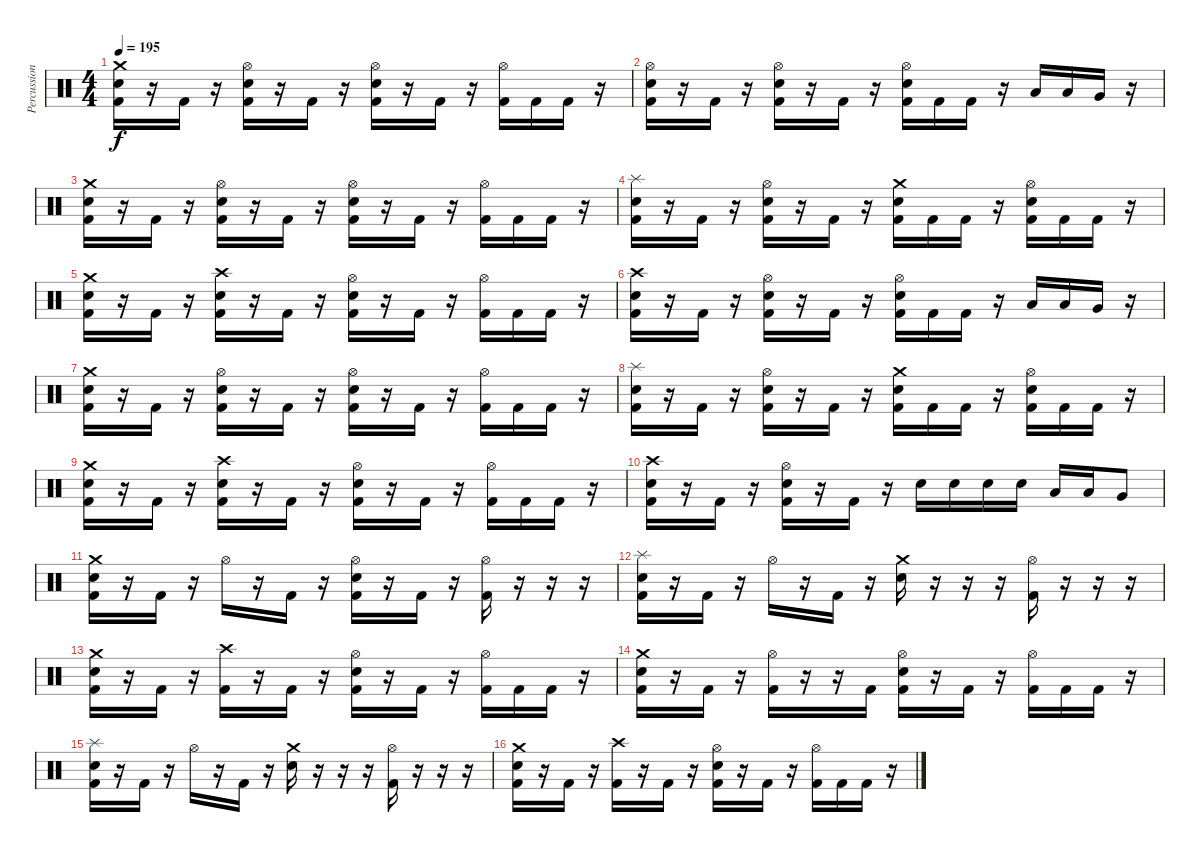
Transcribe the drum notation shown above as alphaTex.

\track ("Percussion" "Percussion") {instrument percussion}
\staff {score}
\articulation defaults
\ts (4 4)
\tempo 195
\clef neutral
\ks c
("Crash medium (hit)" "Electric Snare (hit)" "Kick (hit) 2").16{dy f} r.16 "Kick (hit) 2".16 r.16 ("Hi-Hat (open)" "Electric Snare (hit)" "Kick (hit) 2").16 r.16 "Kick (hit) 2".16 r.16 ("Hi-Hat (open)" "Electric Snare (hit)" "Kick (hit) 2").16 r.16 "Kick (hit) 2".16 r.16 ("Hi-Hat (open)" "Kick (hit) 2").16 "Kick (hit) 2".16 "Kick (hit) 2".16 r.16 |
("Hi-Hat (open)" "Electric Snare (hit)" "Kick (hit) 2").16 r.16 "Kick (hit) 2".16 r.16 ("Hi-Hat (open)" "Electric Snare (hit)" "Kick (hit) 2").16 r.16 "Kick (hit) 2".16 r.16 ("Hi-Hat (open)" "Electric Snare (hit)" "Kick (hit) 2").16 "Kick (hit) 2".16 "Kick (hit) 2".16 r.16 "Low Tom (hit)".16 "Low Tom (hit)".16 "Very Low Tom (hit)".16 r.16 |
("Crash medium (hit)" "Electric Snare (hit)" "Kick (hit) 2").16 r.16 "Kick (hit) 2".16 r.16 ("Hi-Hat (open)" "Electric Snare (hit)" "Kick (hit) 2").16 r.16 "Kick (hit) 2".16 r.16 ("Hi-Hat (open)" "Electric Snare (hit)" "Kick (hit) 2").16 r.16 "Kick (hit) 2".16 r.16 ("Hi-Hat (open)" "Kick (hit) 2").16 "Kick (hit) 2".16 "Kick (hit) 2".16 r.16 |
("Splash (hit)" "Electric Snare (hit)" "Kick (hit) 2").16 r.16 "Kick (hit) 2".16 r.16 ("Hi-Hat (open)" "Electric Snare (hit)" "Kick (hit) 2").16 r.16 "Kick (hit) 2".16 r.16 ("Crash medium (hit)" "Electric Snare (hit)" "Kick (hit) 2").16 "Kick (hit) 2".16 "Kick (hit) 2".16 r.16 ("Hi-Hat (open)" "Electric Snare (hit)" "Kick (hit) 2").16 "Kick (hit) 2".16 "Kick (hit) 2".16 r.16 |
("Crash medium (hit)" "Electric Snare (hit)" "Kick (hit) 2").16 r.16 "Kick (hit) 2".16 r.16 ("Crash high (hit)" "Electric Snare (hit)" "Kick (hit) 2").16 r.16 "Kick (hit) 2".16 r.16 ("Hi-Hat (open)" "Electric Snare (hit)" "Kick (hit) 2").16 r.16 "Kick (hit) 2".16 r.16 ("Hi-Hat (open)" "Kick (hit) 2").16 "Kick (hit) 2".16 "Kick (hit) 2".16 r.16 |
("Crash high (hit)" "Electric Snare (hit)" "Kick (hit) 2").16 r.16 "Kick (hit) 2".16 r.16 ("Hi-Hat (open)" "Electric Snare (hit)" "Kick (hit) 2").16 r.16 "Kick (hit) 2".16 r.16 ("Hi-Hat (open)" "Electric Snare (hit)" "Kick (hit) 2").16 "Kick (hit) 2".16 "Kick (hit) 2".16 r.16 "Low Tom (hit)".16 "Low Tom (hit)".16 "Very Low Tom (hit)".16 r.16 |
("Crash medium (hit)" "Electric Snare (hit)" "Kick (hit) 2").16 r.16 "Kick (hit) 2".16 r.16 ("Hi-Hat (open)" "Electric Snare (hit)" "Kick (hit) 2").16 r.16 "Kick (hit) 2".16 r.16 ("Hi-Hat (open)" "Electric Snare (hit)" "Kick (hit) 2").16 r.16 "Kick (hit) 2".16 r.16 ("Hi-Hat (open)" "Kick (hit) 2").16 "Kick (hit) 2".16 "Kick (hit) 2".16 r.16 |
("Splash (hit)" "Electric Snare (hit)" "Kick (hit) 2").16 r.16 "Kick (hit) 2".16 r.16 ("Hi-Hat (open)" "Electric Snare (hit)" "Kick (hit) 2").16 r.16 "Kick (hit) 2".16 r.16 ("Crash medium (hit)" "Electric Snare (hit)" "Kick (hit) 2").16 "Kick (hit) 2".16 "Kick (hit) 2".16 r.16 ("Hi-Hat (open)" "Electric Snare (hit)" "Kick (hit) 2").16 "Kick (hit) 2".16 "Kick (hit) 2".16 r.16 |
("Crash medium (hit)" "Electric Snare (hit)" "Kick (hit) 2").16 r.16 "Kick (hit) 2".16 r.16 ("Crash high (hit)" "Electric Snare (hit)" "Kick (hit) 2").16 r.16 "Kick (hit) 2".16 r.16 ("Hi-Hat (open)" "Electric Snare (hit)" "Kick (hit) 2").16 r.16 "Kick (hit) 2".16 r.16 ("Hi-Hat (open)" "Kick (hit) 2").16 "Kick (hit) 2".16 "Kick (hit) 2".16 r.16 |
("Crash high (hit)" "Electric Snare (hit)" "Kick (hit) 2").16 r.16 "Kick (hit) 2".16 r.16 ("Hi-Hat (open)" "Electric Snare (hit)" "Kick (hit) 2").16 r.16 "Kick (hit) 2".16 r.16 "Electric Snare (hit)".16 "Electric Snare (hit)".16 "Electric Snare (hit)".16 "Electric Snare (hit)".16 "Low Tom (hit)".16 "Low Tom (hit)".16 "Very Low Tom (hit)".8 |
("Crash medium (hit)" "Electric Snare (hit)" "Kick (hit) 2").16 r.16 "Kick (hit) 2".16 r.16 "Hi-Hat (open)".16 r.16 "Kick (hit) 2".16 r.16 ("Hi-Hat (open)" "Electric Snare (hit)" "Kick (hit) 2").16 r.16 "Kick (hit) 2".16 r.16 ("Hi-Hat (open)" "Kick (hit) 2").16 r.16 r.16 r.16 |
("Splash (hit)" "Electric Snare (hit)" "Kick (hit) 2").16 r.16 "Kick (hit) 2".16 r.16 "Hi-Hat (open)".16 r.16 "Kick (hit) 2".16 r.16 ("Crash medium (hit)" "Electric Snare (hit)").16 r.16 r.16 r.16 ("Hi-Hat (open)" "Kick (hit) 2").16 r.16 r.16 r.16 |
("Crash medium (hit)" "Electric Snare (hit)" "Kick (hit) 2").16 r.16 "Kick (hit) 2".16 r.16 ("Crash high (hit)" "Kick (hit) 2").16 r.16 "Kick (hit) 2".16 r.16 ("Hi-Hat (open)" "Electric Snare (hit)" "Kick (hit) 2").16 r.16 "Kick (hit) 2".16 r.16 ("Hi-Hat (open)" "Kick (hit) 2").16 "Kick (hit) 2".16 "Kick (hit) 2".16 r.16 |
("Crash medium (hit)" "Electric Snare (hit)" "Kick (hit) 2").16 r.16 "Kick (hit) 2".16 r.16 ("Hi-Hat (open)" "Kick (hit) 2").16 r.16 r.16 "Kick (hit) 2".16 ("Hi-Hat (open)" "Electric Snare (hit)" "Kick (hit) 2").16 r.16 "Kick (hit) 2".16 r.16 ("Hi-Hat (open)" "Kick (hit) 2").16 "Kick (hit) 2".16 "Kick (hit) 2".16 r.16 |
("Splash (hit)" "Electric Snare (hit)" "Kick (hit) 2").16 r.16 "Kick (hit) 2".16 r.16 "Hi-Hat (open)".16 r.16 "Kick (hit) 2".16 r.16 ("Crash medium (hit)" "Electric Snare (hit)").16 r.16 r.16 r.16 ("Hi-Hat (open)" "Kick (hit) 2").16 r.16 r.16 r.16 |
("Crash medium (hit)" "Electric Snare (hit)" "Kick (hit) 2").16 r.16 "Kick (hit) 2".16 r.16 ("Crash high (hit)" "Kick (hit) 2").16 r.16 "Kick (hit) 2".16 r.16 ("Hi-Hat (open)" "Electric Snare (hit)" "Kick (hit) 2").16 r.16 "Kick (hit) 2".16 r.16 ("Hi-Hat (open)" "Kick (hit) 2").16 "Kick (hit) 2".16 "Kick (hit) 2".16 r.16
